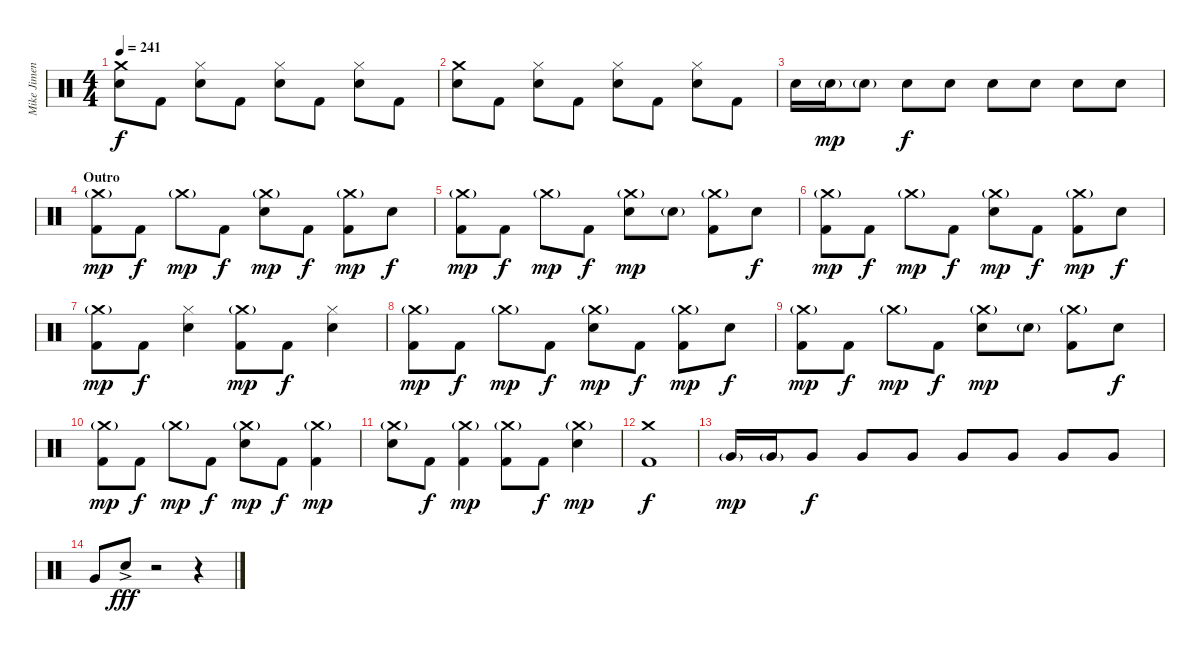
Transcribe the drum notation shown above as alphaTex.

\track ("Mike Jimenez" "Mike Jimen") {instrument percussion}
\staff {score}
\articulation defaults
\ts (4 4)
\tempo 241
\clef neutral
\ks c
("Crash medium (hit)" "Electric Snare (hit)").8{dy f} "Kick (hit) 2".8 ("Hi-Hat (closed)" "Electric Snare (hit)").8 "Kick (hit) 2".8 ("Hi-Hat (closed)" "Electric Snare (hit)").8 "Kick (hit) 2".8 ("Hi-Hat (closed)" "Electric Snare (hit)").8 "Kick (hit) 2".8 |
("Crash medium (hit)" "Electric Snare (hit)").8 "Kick (hit) 2".8 ("Hi-Hat (closed)" "Electric Snare (hit)").8 "Kick (hit) 2".8 ("Hi-Hat (closed)" "Electric Snare (hit)").8 "Kick (hit) 2".8 ("Hi-Hat (closed)" "Electric Snare (hit)").8 "Kick (hit) 2".8 |
"Electric Snare (hit)".16 "Electric Snare (hit)"{g}.16{dy mp} "Electric Snare (hit)"{g}.8 "Electric Snare (hit)".8{dy f} "Electric Snare (hit)".8 "Electric Snare (hit)".8 "Electric Snare (hit)".8 "Electric Snare (hit)".8 "Electric Snare (hit)".8 |
\section ("" "Outro")
("Crash medium (hit)"{g} "Kick (hit) 2").8{dy mp} "Kick (hit) 2".8{dy f} "Crash medium (hit)"{g}.8{dy mp} "Kick (hit) 2".8{dy f} ("Crash medium (hit)"{g} "Electric Snare (hit)").8{dy mp} "Kick (hit) 2".8{dy f} ("Crash medium (hit)"{g} "Kick (hit) 2").8{dy mp} "Electric Snare (hit)".8{dy f} |
("Crash medium (hit)"{g} "Kick (hit) 2").8{dy mp} "Kick (hit) 2".8{dy f} "Crash medium (hit)"{g}.8{dy mp} "Kick (hit) 2".8{dy f} ("Crash medium (hit)"{g} "Electric Snare (hit)").8{dy mp} "Electric Snare (hit)"{g}.8 ("Crash medium (hit)"{g} "Kick (hit) 2").8 "Electric Snare (hit)".8{dy f} |
("Crash medium (hit)"{g} "Kick (hit) 2").8{dy mp} "Kick (hit) 2".8{dy f} "Crash medium (hit)"{g}.8{dy mp} "Kick (hit) 2".8{dy f} ("Crash medium (hit)"{g} "Electric Snare (hit)").8{dy mp} "Kick (hit) 2".8{dy f} ("Crash medium (hit)"{g} "Kick (hit) 2").8{dy mp} "Electric Snare (hit)".8{dy f} |
("Crash medium (hit)"{g} "Kick (hit) 2").8{dy mp} "Kick (hit) 2".8{dy f} ("Hi-Hat (closed)" "Electric Snare (hit)").4 ("Crash medium (hit)"{g} "Kick (hit) 2").8{dy mp} "Kick (hit) 2".8{dy f} ("Hi-Hat (closed)" "Electric Snare (hit)").4 |
("Crash medium (hit)"{g} "Kick (hit) 2").8{dy mp} "Kick (hit) 2".8{dy f} "Crash medium (hit)"{g}.8{dy mp} "Kick (hit) 2".8{dy f} ("Crash medium (hit)"{g} "Electric Snare (hit)").8{dy mp} "Kick (hit) 2".8{dy f} ("Crash medium (hit)"{g} "Kick (hit) 2").8{dy mp} "Electric Snare (hit)".8{dy f} |
("Crash medium (hit)"{g} "Kick (hit) 2").8{dy mp} "Kick (hit) 2".8{dy f} "Crash medium (hit)"{g}.8{dy mp} "Kick (hit) 2".8{dy f} ("Crash medium (hit)"{g} "Electric Snare (hit)").8{dy mp} "Electric Snare (hit)"{g}.8 ("Crash medium (hit)"{g} "Kick (hit) 2").8 "Electric Snare (hit)".8{dy f} |
("Crash medium (hit)"{g} "Kick (hit) 2").8{dy mp} "Kick (hit) 2".8{dy f} "Crash medium (hit)"{g}.8{dy mp} "Kick (hit) 2".8{dy f} ("Crash medium (hit)"{g} "Electric Snare (hit)").8{dy mp} "Kick (hit) 2".8{dy f} ("Crash medium (hit)"{g} "Kick (hit) 2").4{dy mp} |
("Crash medium (hit)"{g} "Electric Snare (hit)").8 "Kick (hit) 2".8{dy f} ("Crash medium (hit)"{g} "Kick (hit) 2").4{dy mp} ("Crash medium (hit)"{g} "Kick (hit) 2").8 "Kick (hit) 2".8{dy f} ("Crash medium (hit)"{g} "Electric Snare (hit)").4{dy mp} |
("Crash medium (hit)" "Kick (hit) 2").1{dy f} |
"Very Low Tom (hit)"{g}.16{dy mp} "Very Low Tom (hit)"{g}.16 "Very Low Tom (hit)".8{dy f} "Very Low Tom (hit)".8 "Very Low Tom (hit)".8 "Very Low Tom (hit)".8 "Very Low Tom (hit)".8 "Very Low Tom (hit)".8 "Very Low Tom (hit)".8 |
"Very Low Tom (hit)".8 "Electric Snare (hit)"{ac}.8{dy fff} r.2 r.4
